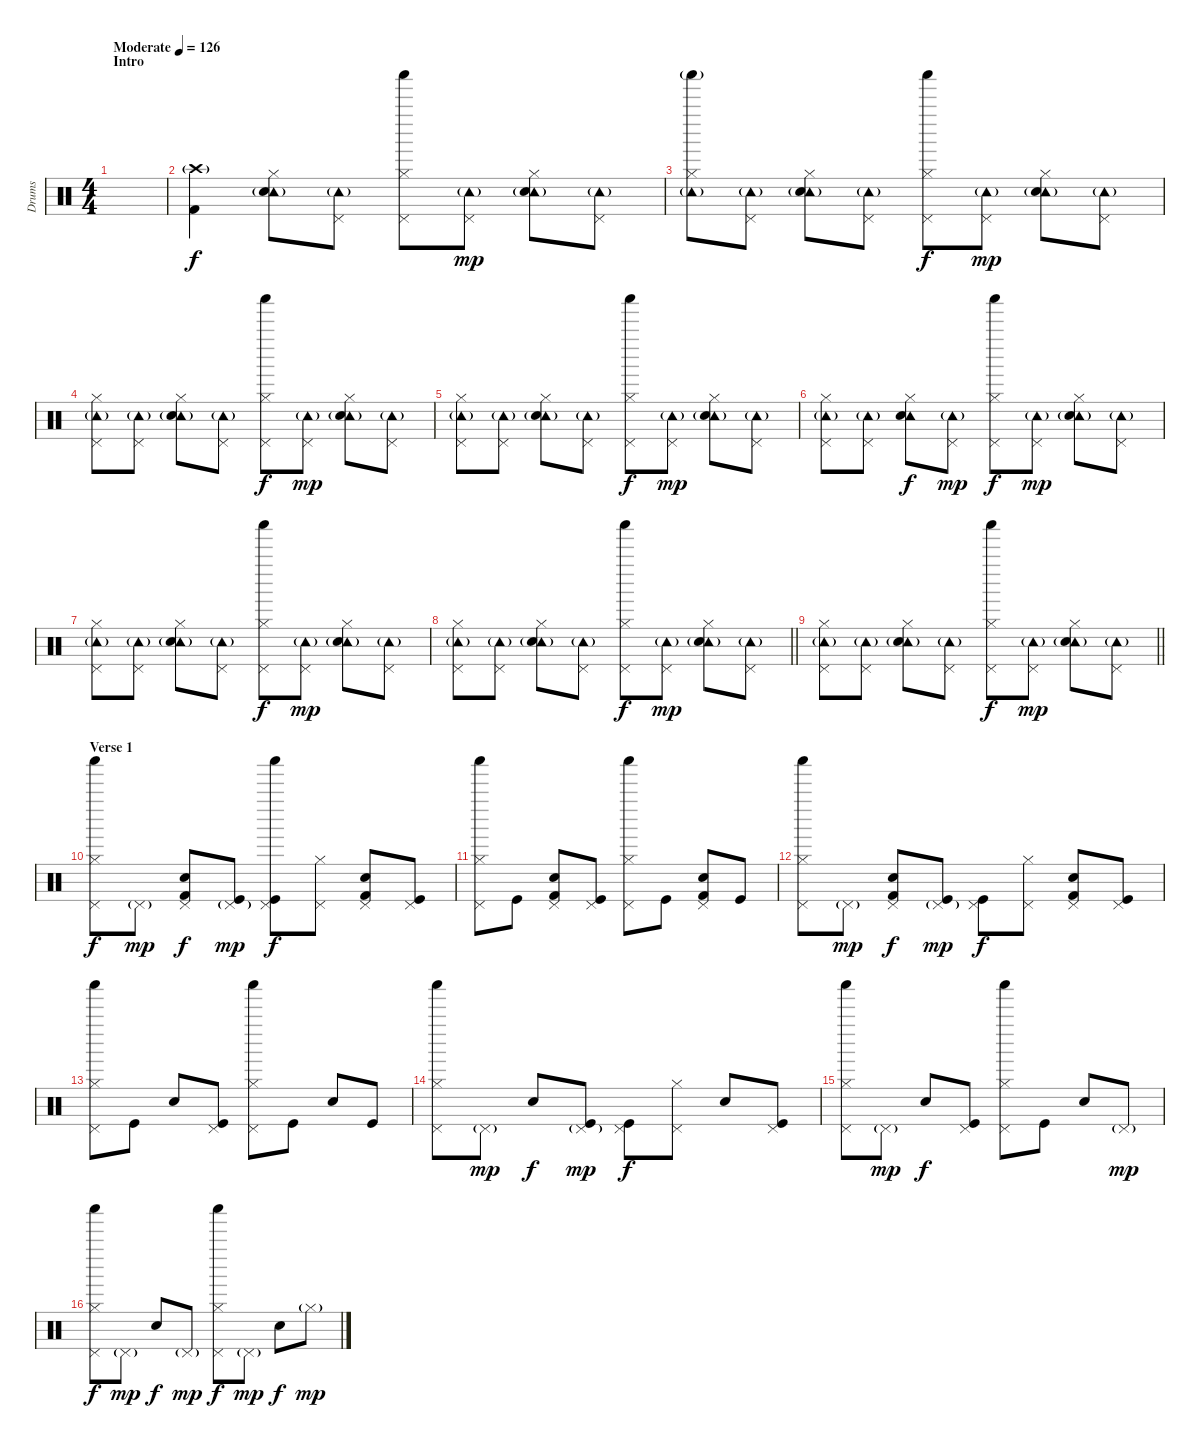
\track ("Drums" "Drums") {instrument percussion}
\staff {score}
\articulation defaults
\ts (4 4)
\section ("" "Intro")
\tempo (126 "Moderate")
\clef neutral
\ks c
|
("Crash high (hit)"{g} "Kick (hit) 2").4 ("Hi-Hat (closed)" "Tambourine (hit)"{g} "Electric Snare (hit)").8 ("Pedal Hi-Hat (hit)" "Tambourine (hit)"{g}).8 ("Hi-Hat (closed)" "Pedal Hi-Hat (hit)" "Shaker (hit)").8{dy f} ("Pedal Hi-Hat (hit)" "Tambourine (hit)"{g}).8{dy mp} ("Hi-Hat (closed)" "Tambourine (hit)"{g} "Electric Snare (hit)").8 ("Pedal Hi-Hat (hit)" "Tambourine (hit)"{g}).8 |
("Hi-Hat (closed)" "Tambourine (hit)"{g} "Shaker (hit)"{g}).8 ("Pedal Hi-Hat (hit)" "Tambourine (hit)"{g}).8 ("Hi-Hat (closed)" "Tambourine (hit)"{g} "Electric Snare (hit)").8 ("Pedal Hi-Hat (hit)" "Tambourine (hit)"{g}).8 ("Hi-Hat (closed)" "Pedal Hi-Hat (hit)" "Shaker (hit)").8{dy f} ("Pedal Hi-Hat (hit)" "Tambourine (hit)"{g}).8{dy mp} ("Hi-Hat (closed)" "Tambourine (hit)"{g} "Electric Snare (hit)").8 ("Pedal Hi-Hat (hit)" "Tambourine (hit)"{g}).8 |
("Hi-Hat (closed)" "Pedal Hi-Hat (hit)" "Tambourine (hit)"{g}).8 ("Pedal Hi-Hat (hit)" "Tambourine (hit)"{g}).8 ("Hi-Hat (closed)" "Tambourine (hit)"{g} "Electric Snare (hit)").8 ("Pedal Hi-Hat (hit)" "Tambourine (hit)"{g}).8 ("Hi-Hat (closed)" "Pedal Hi-Hat (hit)" "Shaker (hit)").8{dy f} ("Pedal Hi-Hat (hit)" "Tambourine (hit)"{g}).8{dy mp} ("Hi-Hat (closed)" "Tambourine (hit)"{g} "Electric Snare (hit)").8 ("Pedal Hi-Hat (hit)" "Tambourine (hit)"{g}).8 |
("Hi-Hat (closed)" "Pedal Hi-Hat (hit)" "Tambourine (hit)"{g}).8 ("Pedal Hi-Hat (hit)" "Tambourine (hit)"{g}).8 ("Hi-Hat (closed)" "Tambourine (hit)"{g} "Electric Snare (hit)").8 ("Pedal Hi-Hat (hit)" "Tambourine (hit)"{g}).8 ("Hi-Hat (closed)" "Pedal Hi-Hat (hit)" "Shaker (hit)").8{dy f} ("Pedal Hi-Hat (hit)" "Tambourine (hit)"{g}).8{dy mp} ("Hi-Hat (closed)" "Tambourine (hit)"{g} "Electric Snare (hit)").8 ("Pedal Hi-Hat (hit)" "Tambourine (hit)"{g}).8 |
("Hi-Hat (closed)" "Pedal Hi-Hat (hit)" "Tambourine (hit)"{g}).8 ("Pedal Hi-Hat (hit)" "Tambourine (hit)"{g}).8 ("Hi-Hat (closed)" "Tambourine (hit)" "Electric Snare (hit)").8{dy f} ("Pedal Hi-Hat (hit)" "Tambourine (hit)"{g}).8{dy mp} ("Hi-Hat (closed)" "Pedal Hi-Hat (hit)" "Shaker (hit)").8{dy f} ("Pedal Hi-Hat (hit)" "Tambourine (hit)"{g}).8{dy mp} ("Hi-Hat (closed)" "Tambourine (hit)"{g} "Electric Snare (hit)").8 ("Pedal Hi-Hat (hit)" "Tambourine (hit)"{g}).8 |
("Hi-Hat (closed)" "Pedal Hi-Hat (hit)" "Tambourine (hit)"{g}).8 ("Pedal Hi-Hat (hit)" "Tambourine (hit)"{g}).8 ("Hi-Hat (closed)" "Tambourine (hit)"{g} "Electric Snare (hit)").8 ("Pedal Hi-Hat (hit)" "Tambourine (hit)"{g}).8 ("Hi-Hat (closed)" "Pedal Hi-Hat (hit)" "Shaker (hit)").8{dy f} ("Pedal Hi-Hat (hit)" "Tambourine (hit)"{g}).8{dy mp} ("Hi-Hat (closed)" "Tambourine (hit)"{g} "Electric Snare (hit)").8 ("Pedal Hi-Hat (hit)" "Tambourine (hit)"{g}).8 |
\barLineRight lightlight
("Hi-Hat (closed)" "Pedal Hi-Hat (hit)" "Tambourine (hit)"{g}).8 ("Pedal Hi-Hat (hit)" "Tambourine (hit)"{g}).8 ("Hi-Hat (closed)" "Tambourine (hit)"{g} "Electric Snare (hit)").8 ("Pedal Hi-Hat (hit)" "Tambourine (hit)"{g}).8 ("Hi-Hat (closed)" "Pedal Hi-Hat (hit)" "Shaker (hit)").8{dy f} ("Pedal Hi-Hat (hit)" "Tambourine (hit)"{g}).8{dy mp} ("Hi-Hat (closed)" "Tambourine (hit)"{g} "Electric Snare (hit)").8 ("Pedal Hi-Hat (hit)" "Tambourine (hit)"{g}).8 |
\section ("" "")
\barLineRight lightlight
("Hi-Hat (closed)" "Pedal Hi-Hat (hit)" "Tambourine (hit)"{g}).8 ("Pedal Hi-Hat (hit)" "Tambourine (hit)"{g}).8 ("Hi-Hat (closed)" "Tambourine (hit)"{g} "Electric Snare (hit)").8 ("Pedal Hi-Hat (hit)" "Tambourine (hit)"{g}).8 ("Hi-Hat (closed)" "Pedal Hi-Hat (hit)" "Shaker (hit)").8{dy f} ("Pedal Hi-Hat (hit)" "Tambourine (hit)"{g}).8{dy mp} ("Hi-Hat (closed)" "Tambourine (hit)"{g} "Electric Snare (hit)").8 ("Pedal Hi-Hat (hit)" "Tambourine (hit)"{g}).8 |
\section ("" "Verse 1")
("Hi-Hat (closed)" "Pedal Hi-Hat (hit)" "Shaker (hit)").8{dy f} "Pedal Hi-Hat (hit)"{g}.8{dy mp} ("Pedal Hi-Hat (hit)" "Electric Snare (hit)" "Kick (hit) 2").8{dy f} ("Pedal Hi-Hat (hit)"{g} "Kick (hit)").8{dy mp} ("Pedal Hi-Hat (hit)" "Kick (hit)" "Shaker (hit)").8{dy f} ("Hi-Hat (closed)" "Pedal Hi-Hat (hit)").8 ("Pedal Hi-Hat (hit)" "Electric Snare (hit)" "Kick (hit) 2").8 ("Pedal Hi-Hat (hit)" "Kick (hit)").8 |
("Hi-Hat (closed)" "Pedal Hi-Hat (hit)" "Shaker (hit)").8 "Kick (hit)".8 ("Pedal Hi-Hat (hit)" "Electric Snare (hit)" "Kick (hit) 2").8 ("Pedal Hi-Hat (hit)" "Kick (hit)").8 ("Hi-Hat (closed)" "Pedal Hi-Hat (hit)" "Shaker (hit)").8 "Kick (hit)".8 ("Pedal Hi-Hat (hit)" "Electric Snare (hit)" "Kick (hit) 2").8 "Kick (hit)".8 |
("Hi-Hat (closed)" "Pedal Hi-Hat (hit)" "Shaker (hit)").8 "Pedal Hi-Hat (hit)"{g}.8{dy mp} ("Pedal Hi-Hat (hit)" "Electric Snare (hit)" "Kick (hit) 2").8{dy f} ("Pedal Hi-Hat (hit)"{g} "Kick (hit)").8{dy mp} ("Pedal Hi-Hat (hit)" "Kick (hit)").8{dy f} ("Hi-Hat (closed)" "Pedal Hi-Hat (hit)").8 ("Pedal Hi-Hat (hit)" "Electric Snare (hit)" "Kick (hit) 2").8 ("Pedal Hi-Hat (hit)" "Kick (hit)").8 |
("Hi-Hat (closed)" "Pedal Hi-Hat (hit)" "Shaker (hit)").8 "Kick (hit)".8 "Electric Snare (hit)".8 ("Pedal Hi-Hat (hit)" "Kick (hit)").8 ("Hi-Hat (closed)" "Pedal Hi-Hat (hit)" "Shaker (hit)").8 "Kick (hit)".8 "Electric Snare (hit)".8 "Kick (hit)".8 |
("Hi-Hat (closed)" "Pedal Hi-Hat (hit)" "Shaker (hit)").8 "Pedal Hi-Hat (hit)"{g}.8{dy mp} "Electric Snare (hit)".8{dy f} ("Pedal Hi-Hat (hit)"{g} "Kick (hit)").8{dy mp} ("Pedal Hi-Hat (hit)" "Kick (hit)").8{dy f} ("Hi-Hat (closed)" "Pedal Hi-Hat (hit)").8 "Electric Snare (hit)".8 ("Pedal Hi-Hat (hit)" "Kick (hit)").8 |
("Hi-Hat (closed)" "Pedal Hi-Hat (hit)" "Shaker (hit)").8 "Pedal Hi-Hat (hit)"{g}.8{dy mp} "Electric Snare (hit)".8{dy f} ("Pedal Hi-Hat (hit)" "Kick (hit)").8 ("Hi-Hat (closed)" "Pedal Hi-Hat (hit)" "Shaker (hit)").8 "Kick (hit)".8 "Electric Snare (hit)".8 "Pedal Hi-Hat (hit)"{g}.8{dy mp} |
("Hi-Hat (closed)" "Pedal Hi-Hat (hit)" "Shaker (hit)").8{dy f} "Pedal Hi-Hat (hit)"{g}.8{dy mp} "Electric Snare (hit)".8{dy f} "Pedal Hi-Hat (hit)"{g}.8{dy mp} ("Hi-Hat (closed)" "Pedal Hi-Hat (hit)" "Shaker (hit)").8{dy f} "Pedal Hi-Hat (hit)"{g}.8{dy mp} "Electric Snare (hit)".8{dy f} "Hi-Hat (closed)"{g}.8{dy mp}
